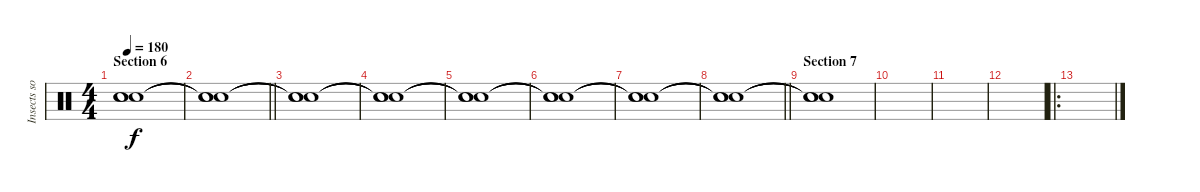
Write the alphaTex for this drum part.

\track ("Insects sound FX" "Insects so") {instrument percussion}
\staff {score}
\articulation defaults
\ts (4 4)
\section ("" "Section 6")
\tempo 180
\clef neutral
\ks c
("Snare (hit)"{t} "Snare (hit)"{t} "Snare (hit)").1{dy f} |
\barLineRight lightlight
("Snare (hit)"{t} "Snare (hit)"{t} "Snare (hit)"{t}).1 |
("Snare (hit)"{t} "Snare (hit)"{t} "Snare (hit)"{t}).1 |
("Snare (hit)"{t} "Snare (hit)"{t} "Snare (hit)"{t}).1 |
("Snare (hit)"{t} "Snare (hit)"{t} "Snare (hit)"{t}).1 |
("Snare (hit)"{t} "Snare (hit)"{t} "Snare (hit)"{t}).1 |
("Snare (hit)"{t} "Snare (hit)"{t} "Snare (hit)"{t}).1 |
\barLineRight lightlight
("Snare (hit)"{t} "Snare (hit)"{t} "Snare (hit)"{t}).1 |
\section ("" "Section 7")
("Snare (hit)"{t} "Snare (hit)"{t} "Snare (hit)"{t}).1 |
|
|
|
\ro
